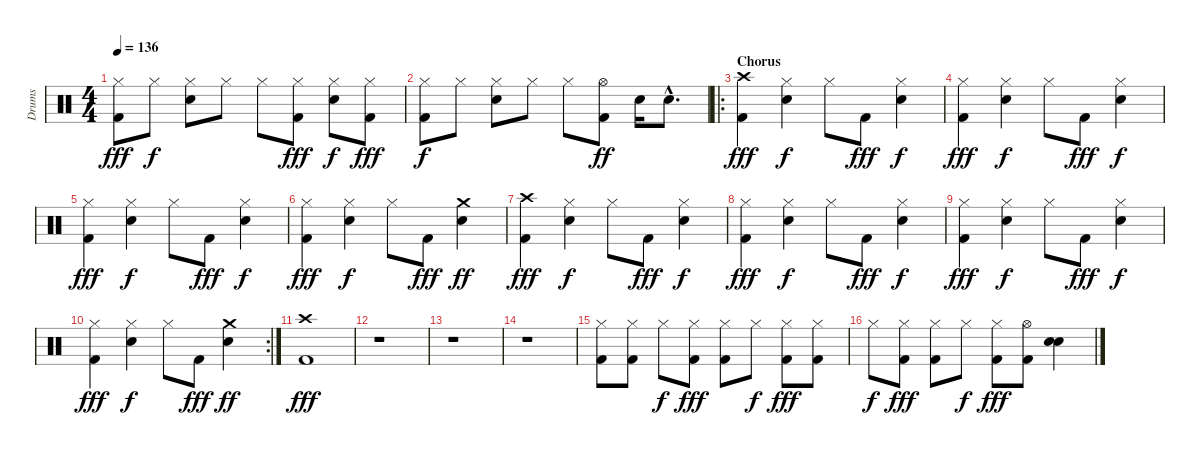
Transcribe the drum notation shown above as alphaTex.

\track ("Drums" "Drums") {instrument percussion}
\staff {score}
\articulation defaults
\ts (4 4)
\tempo 136
\clef neutral
\ks c
("Hi-Hat (closed)" "Kick (hit) 2").8{txt " " dy fff} "Hi-Hat (closed)".8{dy f} ("Hi-Hat (closed)" "Snare (hit) 2").8 "Hi-Hat (closed)".8 "Hi-Hat (closed)".8 ("Hi-Hat (closed)" "Kick (hit) 2").8{dy fff} ("Hi-Hat (closed)" "Snare (hit) 2").8{dy f} ("Hi-Hat (closed)" "Kick (hit) 2").8{dy fff} |
("Hi-Hat (closed)" "Kick (hit) 2").8{txt " " dy f} "Hi-Hat (closed)".8 ("Hi-Hat (closed)" "Snare (hit) 2").8 "Hi-Hat (closed)".8 "Hi-Hat (closed)".8 ("Hi-Hat (open)" "Kick (hit) 2").8{dy ff} "Snare (hit) 2".16 "Snare (hit) 2"{hac}.8{d} |
\ro
\section ("" "Chorus")
("Crash high (hit)" "Kick (hit) 2").4{txt " " dy fff} ("Hi-Hat (closed)" "Snare (hit) 2").4{dy f} "Hi-Hat (closed)".8 "Kick (hit) 2".8{dy fff} ("Hi-Hat (closed)" "Snare (hit) 2").4{dy f} |
("Hi-Hat (closed)" "Kick (hit) 2").4{txt " " dy fff} ("Hi-Hat (closed)" "Snare (hit) 2").4{dy f} "Hi-Hat (closed)".8 "Kick (hit) 2".8{dy fff} ("Hi-Hat (closed)" "Snare (hit) 2").4{dy f} |
("Hi-Hat (closed)" "Kick (hit) 2").4{txt " " dy fff} ("Hi-Hat (closed)" "Snare (hit) 2").4{dy f} "Hi-Hat (closed)".8 "Kick (hit) 2".8{dy fff} ("Hi-Hat (closed)" "Snare (hit) 2").4{dy f} |
("Hi-Hat (closed)" "Kick (hit) 2").4{txt " " dy fff} ("Hi-Hat (closed)" "Snare (hit) 2").4{dy f} "Hi-Hat (closed)".8 "Kick (hit) 2".8{dy fff} ("Crash medium (hit)" "Snare (hit) 2").4{dy ff} |
("Crash high (hit)" "Kick (hit) 2").4{txt " " dy fff} ("Hi-Hat (closed)" "Snare (hit) 2").4{dy f} "Hi-Hat (closed)".8 "Kick (hit) 2".8{dy fff} ("Hi-Hat (closed)" "Snare (hit) 2").4{dy f} |
("Hi-Hat (closed)" "Kick (hit) 2").4{txt " " dy fff} ("Hi-Hat (closed)" "Snare (hit) 2").4{dy f} "Hi-Hat (closed)".8 "Kick (hit) 2".8{dy fff} ("Hi-Hat (closed)" "Snare (hit) 2").4{dy f} |
("Hi-Hat (closed)" "Kick (hit) 2").4{txt " " dy fff} ("Hi-Hat (closed)" "Snare (hit) 2").4{dy f} "Hi-Hat (closed)".8 "Kick (hit) 2".8{dy fff} ("Hi-Hat (closed)" "Snare (hit) 2").4{dy f} |
\rc 2
("Hi-Hat (closed)" "Kick (hit) 2").4{txt " " dy fff} ("Hi-Hat (closed)" "Snare (hit) 2").4{dy f} "Hi-Hat (closed)".8 "Kick (hit) 2".8{dy fff} ("Crash medium (hit)" "Snare (hit) 2").4{dy ff} |
("Crash high (hit)" "Kick (hit) 2").1{dy fff} |
r.1 |
r.1 |
r.1 |
("Hi-Hat (closed)" "Kick (hit) 2").8{txt " "} ("Hi-Hat (closed)" "Kick (hit) 2").8 "Hi-Hat (closed)".8{dy f} ("Hi-Hat (closed)" "Kick (hit) 2").8{dy fff} ("Hi-Hat (closed)" "Kick (hit) 2").8 "Hi-Hat (closed)".8{dy f} ("Hi-Hat (closed)" "Kick (hit) 2").8{dy fff} ("Hi-Hat (closed)" "Kick (hit) 2").8 |
"Hi-Hat (closed)".8{dy f} ("Hi-Hat (closed)" "Kick (hit) 2").8{dy fff} ("Hi-Hat (closed)" "Kick (hit) 2").8 "Hi-Hat (closed)".8{dy f} ("Hi-Hat (closed)" "Kick (hit) 2").8{dy fff} ("Hi-Hat (open)" "Kick (hit) 2").8 ("Snare (hit) 2" "Snare (hit) 2").4{bd 120}
